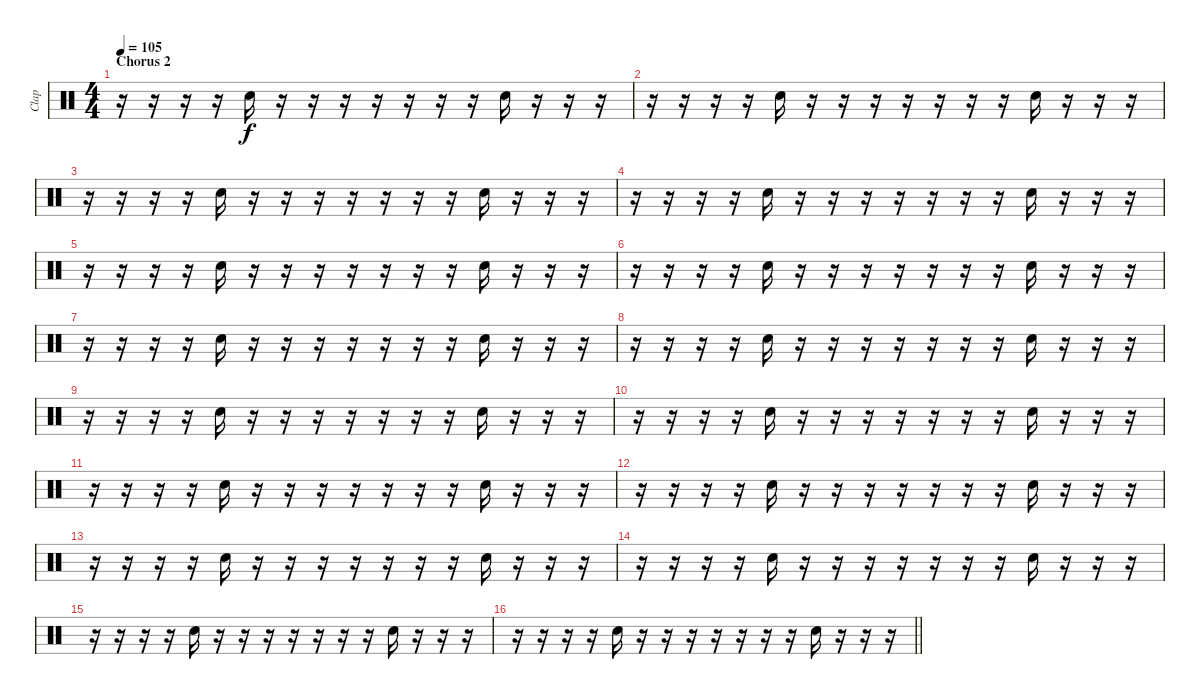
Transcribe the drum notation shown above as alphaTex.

\track ("Clap" "Clap") {instrument percussion}
\staff {score}
\articulation defaults
\ts (4 4)
\section ("" "Chorus 2")
\tempo 105
\clef neutral
\ks c
r.16{dy f} r.16 r.16 r.16 "Hand Clap (hit)".16 r.16 r.16 r.16 r.16 r.16 r.16 r.16 "Hand Clap (hit)".16 r.16 r.16 r.16 |
r.16 r.16 r.16 r.16 "Hand Clap (hit)".16 r.16 r.16 r.16 r.16 r.16 r.16 r.16 "Hand Clap (hit)".16 r.16 r.16 r.16 |
r.16 r.16 r.16 r.16 "Hand Clap (hit)".16 r.16 r.16 r.16 r.16 r.16 r.16 r.16 "Hand Clap (hit)".16 r.16 r.16 r.16 |
r.16 r.16 r.16 r.16 "Hand Clap (hit)".16 r.16 r.16 r.16 r.16 r.16 r.16 r.16 "Hand Clap (hit)".16 r.16 r.16 r.16 |
r.16 r.16 r.16 r.16 "Hand Clap (hit)".16 r.16 r.16 r.16 r.16 r.16 r.16 r.16 "Hand Clap (hit)".16 r.16 r.16 r.16 |
r.16 r.16 r.16 r.16 "Hand Clap (hit)".16 r.16 r.16 r.16 r.16 r.16 r.16 r.16 "Hand Clap (hit)".16 r.16 r.16 r.16 |
r.16 r.16 r.16 r.16 "Hand Clap (hit)".16 r.16 r.16 r.16 r.16 r.16 r.16 r.16 "Hand Clap (hit)".16 r.16 r.16 r.16 |
r.16 r.16 r.16 r.16 "Hand Clap (hit)".16 r.16 r.16 r.16 r.16 r.16 r.16 r.16 "Hand Clap (hit)".16 r.16 r.16 r.16 |
r.16 r.16 r.16 r.16 "Hand Clap (hit)".16 r.16 r.16 r.16 r.16 r.16 r.16 r.16 "Hand Clap (hit)".16 r.16 r.16 r.16 |
r.16 r.16 r.16 r.16 "Hand Clap (hit)".16 r.16 r.16 r.16 r.16 r.16 r.16 r.16 "Hand Clap (hit)".16 r.16 r.16 r.16 |
r.16 r.16 r.16 r.16 "Hand Clap (hit)".16 r.16 r.16 r.16 r.16 r.16 r.16 r.16 "Hand Clap (hit)".16 r.16 r.16 r.16 |
r.16 r.16 r.16 r.16 "Hand Clap (hit)".16 r.16 r.16 r.16 r.16 r.16 r.16 r.16 "Hand Clap (hit)".16 r.16 r.16 r.16 |
r.16 r.16 r.16 r.16 "Hand Clap (hit)".16 r.16 r.16 r.16 r.16 r.16 r.16 r.16 "Hand Clap (hit)".16 r.16 r.16 r.16 |
r.16 r.16 r.16 r.16 "Hand Clap (hit)".16 r.16 r.16 r.16 r.16 r.16 r.16 r.16 "Hand Clap (hit)".16 r.16 r.16 r.16 |
r.16 r.16 r.16 r.16 "Hand Clap (hit)".16 r.16 r.16 r.16 r.16 r.16 r.16 r.16 "Hand Clap (hit)".16 r.16 r.16 r.16 |
\barLineRight lightlight
r.16 r.16 r.16 r.16 "Hand Clap (hit)".16 r.16 r.16 r.16 r.16 r.16 r.16 r.16 "Hand Clap (hit)".16 r.16 r.16 r.16
